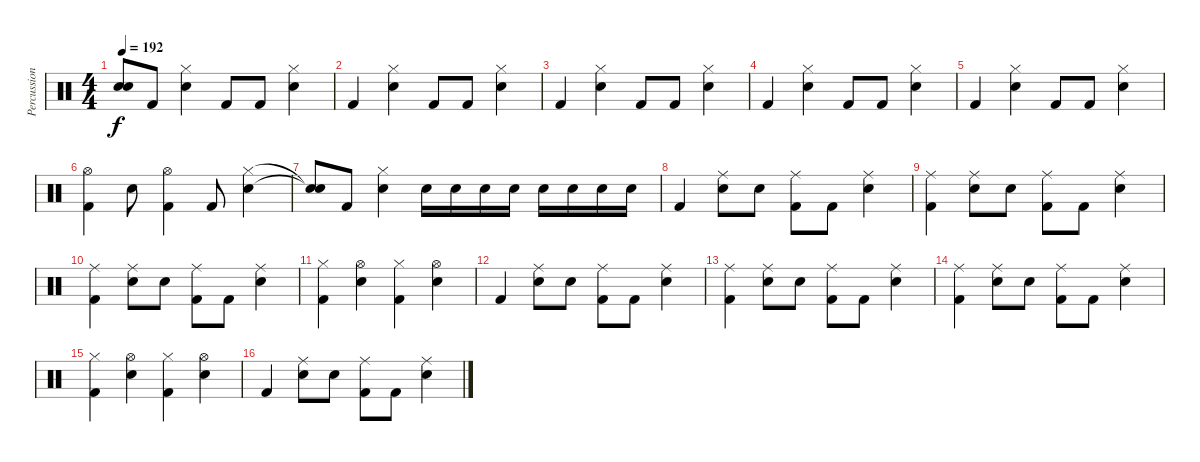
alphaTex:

\track ("Percussions" "Percussion") {instrument percussion}
\staff {score}
\articulation defaults
\ts (4 4)
\tempo 192
\clef neutral
\ks c
("Snare (hit)"{t} "Snare (hit)"{t}).8{dy f} "Kick (hit) 2".8 ("Electric Snare (hit)" "Hi-Hat (closed)").4 "Kick (hit) 2".8 "Kick (hit) 2".8 ("Electric Snare (hit)" "Hi-Hat (closed)").4 |
"Kick (hit) 2".4 ("Electric Snare (hit)" "Hi-Hat (closed)").4 "Kick (hit) 2".8 "Kick (hit) 2".8 ("Electric Snare (hit)" "Hi-Hat (closed)").4 |
"Kick (hit) 2".4 ("Electric Snare (hit)" "Hi-Hat (closed)").4 "Kick (hit) 2".8 "Kick (hit) 2".8 ("Electric Snare (hit)" "Hi-Hat (closed)").4 |
"Kick (hit) 2".4 ("Electric Snare (hit)" "Hi-Hat (closed)").4 "Kick (hit) 2".8 "Kick (hit) 2".8 ("Electric Snare (hit)" "Hi-Hat (closed)").4 |
"Kick (hit) 2".4 ("Electric Snare (hit)" "Hi-Hat (closed)").4 "Kick (hit) 2".8 "Kick (hit) 2".8 ("Electric Snare (hit)" "Hi-Hat (closed)").4 |
("Kick (hit) 2" "Hi-Hat (open)").4 "Electric Snare (hit)".8 ("Kick (hit) 2" "Hi-Hat (open)").4 "Kick (hit) 2".8 ("Electric Snare (hit)" "Hi-Hat (closed)").4 |
("Snare (hit)"{t} "Snare (hit)"{t}).8 "Kick (hit) 2".8 ("Electric Snare (hit)" "Hi-Hat (closed)").4 "Electric Snare (hit)".16 "Electric Snare (hit)".16 "Electric Snare (hit)".16 "Electric Snare (hit)".16 "Electric Snare (hit)".16 "Electric Snare (hit)".16 "Electric Snare (hit)".16 "Electric Snare (hit)".16 |
"Kick (hit) 2".4 ("Electric Snare (hit)" "Ride (middle)").8 "Electric Snare (hit)".8 ("Kick (hit) 2" "Ride (middle)").8 "Kick (hit) 2".8 ("Electric Snare (hit)" "Ride (middle)").4 |
("Kick (hit) 2" "Ride (middle)").4 ("Electric Snare (hit)" "Ride (middle)").8 "Electric Snare (hit)".8 ("Kick (hit) 2" "Ride (middle)").8 "Kick (hit) 2".8 ("Electric Snare (hit)" "Ride (middle)").4 |
("Kick (hit) 2" "Ride (middle)").4 ("Electric Snare (hit)" "Ride (middle)").8 "Electric Snare (hit)".8 ("Kick (hit) 2" "Ride (middle)").8 "Kick (hit) 2".8 ("Electric Snare (hit)" "Ride (middle)").4 |
("Kick (hit) 2" "Hi-Hat (closed)").4 ("Electric Snare (hit)" "Hi-Hat (open)").4 ("Kick (hit) 2" "Hi-Hat (closed)").4 ("Electric Snare (hit)" "Hi-Hat (open)").4 |
"Kick (hit) 2".4 ("Electric Snare (hit)" "Ride (middle)").8 "Electric Snare (hit)".8 ("Kick (hit) 2" "Ride (middle)").8 "Kick (hit) 2".8 ("Electric Snare (hit)" "Ride (middle)").4 |
("Kick (hit) 2" "Ride (middle)").4 ("Electric Snare (hit)" "Ride (middle)").8 "Electric Snare (hit)".8 ("Kick (hit) 2" "Ride (middle)").8 "Kick (hit) 2".8 ("Electric Snare (hit)" "Ride (middle)").4 |
("Kick (hit) 2" "Ride (middle)").4 ("Electric Snare (hit)" "Ride (middle)").8 "Electric Snare (hit)".8 ("Kick (hit) 2" "Ride (middle)").8 "Kick (hit) 2".8 ("Electric Snare (hit)" "Ride (middle)").4 |
("Kick (hit) 2" "Hi-Hat (closed)").4 ("Electric Snare (hit)" "Hi-Hat (open)").4 ("Kick (hit) 2" "Hi-Hat (closed)").4 ("Electric Snare (hit)" "Hi-Hat (open)").4 |
"Kick (hit) 2".4 ("Electric Snare (hit)" "Ride (middle)").8 "Electric Snare (hit)".8 ("Kick (hit) 2" "Ride (middle)").8 "Kick (hit) 2".8 ("Electric Snare (hit)" "Ride (middle)").4
